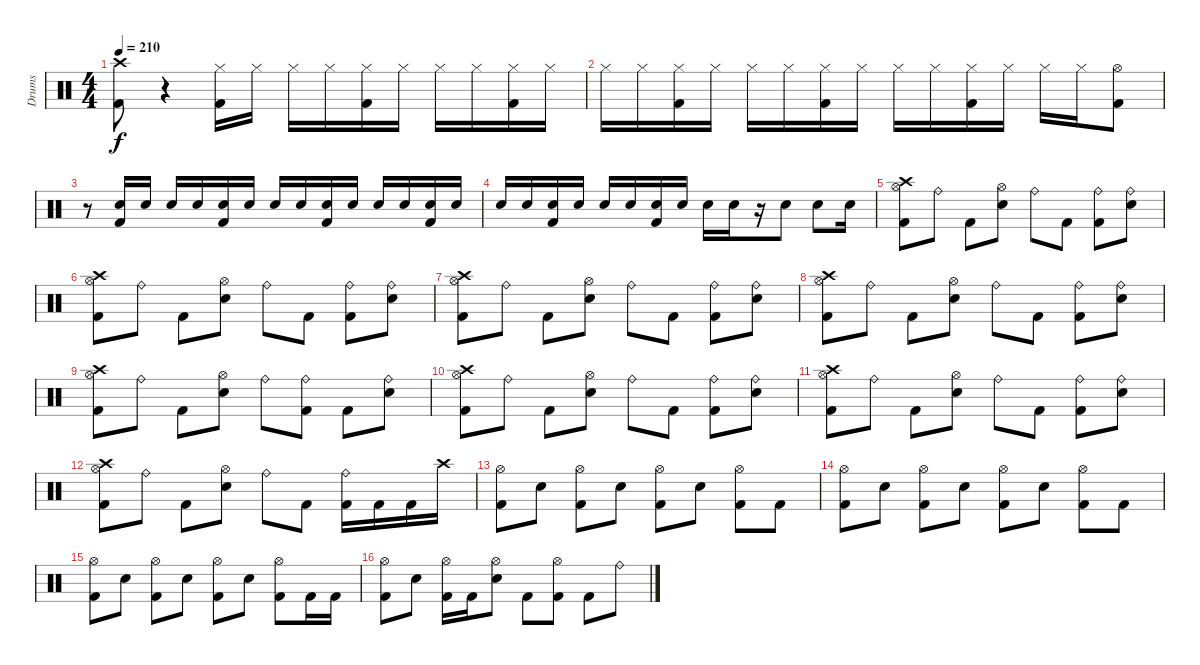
\track ("Drums" "Drums") {instrument percussion}
\staff {score}
\articulation defaults
\ts (4 4)
\tempo 210
\clef neutral
\ks c
("Crash high (hit)" "Kick (hit) 2").8{dy f} r.4 ("Hi-Hat (closed)" "Kick (hit) 2").16 "Hi-Hat (closed)".16 "Hi-Hat (closed)".16 "Hi-Hat (closed)".16 ("Hi-Hat (closed)" "Kick (hit) 2").16 "Hi-Hat (closed)".16 "Hi-Hat (closed)".16 "Hi-Hat (closed)".16 ("Hi-Hat (closed)" "Kick (hit) 2").16 "Hi-Hat (closed)".16 |
"Hi-Hat (closed)".16 "Hi-Hat (closed)".16 ("Hi-Hat (closed)" "Kick (hit) 2").16 "Hi-Hat (closed)".16 "Hi-Hat (closed)".16 "Hi-Hat (closed)".16 ("Hi-Hat (closed)" "Kick (hit) 2").16 "Hi-Hat (closed)".16 "Hi-Hat (closed)".16 "Hi-Hat (closed)".16 ("Hi-Hat (closed)" "Kick (hit) 2").16 "Hi-Hat (closed)".16 "Hi-Hat (closed)".16 "Hi-Hat (closed)".16 ("Hi-Hat (open)" "Kick (hit) 2").8 |
r.8 ("Electric Snare (hit)" "Kick (hit) 2").16{volume 16} "Electric Snare (hit)".16 "Electric Snare (hit)".16 "Electric Snare (hit)".16 ("Electric Snare (hit)" "Kick (hit) 2").16 "Electric Snare (hit)".16 "Electric Snare (hit)".16 "Electric Snare (hit)".16 ("Electric Snare (hit)" "Kick (hit) 2").16 "Electric Snare (hit)".16 "Electric Snare (hit)".16 "Electric Snare (hit)".16 ("Electric Snare (hit)" "Kick (hit) 2").16 "Electric Snare (hit)".16 |
"Electric Snare (hit)".16 "Electric Snare (hit)".16 ("Electric Snare (hit)" "Kick (hit) 2").16 "Electric Snare (hit)".16 "Electric Snare (hit)".16 "Electric Snare (hit)".16 ("Electric Snare (hit)" "Kick (hit) 2").16 "Electric Snare (hit)".16 "Electric Snare (hit)".16 "Electric Snare (hit)".16 r.16 "Electric Snare (hit)".8 "Electric Snare (hit)".8 "Electric Snare (hit)".16 |
("Crash high (hit)" "Hi-Hat (open)" "Kick (hit) 2").8 "Ride (bell)".8 "Kick (hit) 2".8 ("Hi-Hat (open)" "Electric Snare (hit)").8 "Ride (bell)".8 "Kick (hit) 2".8 ("Ride (bell)" "Kick (hit) 2").8 ("Ride (bell)" "Electric Snare (hit)").8 |
("Crash high (hit)" "Hi-Hat (open)" "Kick (hit) 2").8 "Ride (bell)".8 "Kick (hit) 2".8 ("Hi-Hat (open)" "Electric Snare (hit)").8 "Ride (bell)".8 "Kick (hit) 2".8 ("Ride (bell)" "Kick (hit) 2").8 ("Ride (bell)" "Electric Snare (hit)").8 |
("Crash high (hit)" "Hi-Hat (open)" "Kick (hit) 2").8 "Ride (bell)".8 "Kick (hit) 2".8 ("Hi-Hat (open)" "Electric Snare (hit)").8 "Ride (bell)".8 "Kick (hit) 2".8 ("Ride (bell)" "Kick (hit) 2").8 ("Ride (bell)" "Electric Snare (hit)").8 |
("Crash high (hit)" "Hi-Hat (open)" "Kick (hit) 2").8 "Ride (bell)".8 "Kick (hit) 2".8 ("Hi-Hat (open)" "Electric Snare (hit)").8 "Ride (bell)".8 "Kick (hit) 2".8 ("Ride (bell)" "Kick (hit) 2").8 ("Ride (bell)" "Electric Snare (hit)").8 |
("Crash high (hit)" "Hi-Hat (open)" "Kick (hit) 2").8 "Ride (bell)".8 "Kick (hit) 2".8 ("Hi-Hat (open)" "Electric Snare (hit)").8 "Ride (bell)".8 ("Ride (bell)" "Kick (hit) 2").8 "Kick (hit) 2".8 ("Ride (bell)" "Electric Snare (hit)").8 |
("Crash high (hit)" "Hi-Hat (open)" "Kick (hit) 2").8 "Ride (bell)".8 "Kick (hit) 2".8 ("Hi-Hat (open)" "Electric Snare (hit)").8 "Ride (bell)".8 "Kick (hit) 2".8 ("Ride (bell)" "Kick (hit) 2").8 ("Ride (bell)" "Electric Snare (hit)").8 |
("Crash high (hit)" "Hi-Hat (open)" "Kick (hit) 2").8 "Ride (bell)".8 "Kick (hit) 2".8 ("Hi-Hat (open)" "Electric Snare (hit)").8 "Ride (bell)".8 "Kick (hit) 2".8 ("Ride (bell)" "Kick (hit) 2").8 ("Ride (bell)" "Electric Snare (hit)").8 |
("Crash high (hit)" "Hi-Hat (open)" "Kick (hit) 2").8 "Ride (bell)".8 "Kick (hit) 2".8 ("Hi-Hat (open)" "Electric Snare (hit)").8 "Ride (bell)".8 "Kick (hit) 2".8 ("Ride (bell)" "Kick (hit) 2").16 "Kick (hit) 2".16 "Kick (hit) 2".16 "Crash high (hit)".16 |
("Hi-Hat (open)" "Kick (hit) 2").8 "Electric Snare (hit)".8 ("Hi-Hat (open)" "Kick (hit) 2").8 "Electric Snare (hit)".8 ("Hi-Hat (open)" "Kick (hit) 2").8 "Electric Snare (hit)".8 ("Hi-Hat (open)" "Kick (hit) 2").8 "Kick (hit) 2".8 |
("Hi-Hat (open)" "Kick (hit) 2").8 "Electric Snare (hit)".8 ("Hi-Hat (open)" "Kick (hit) 2").8 "Electric Snare (hit)".8 ("Hi-Hat (open)" "Kick (hit) 2").8 "Electric Snare (hit)".8 ("Hi-Hat (open)" "Kick (hit) 2").8 "Kick (hit) 2".8 |
("Hi-Hat (open)" "Kick (hit) 2").8 "Electric Snare (hit)".8 ("Hi-Hat (open)" "Kick (hit) 2").8 "Electric Snare (hit)".8 ("Hi-Hat (open)" "Kick (hit) 2").8 "Electric Snare (hit)".8 ("Hi-Hat (open)" "Kick (hit) 2").8 "Kick (hit) 2".16 "Kick (hit) 2".16 |
("Hi-Hat (open)" "Kick (hit) 2").8 "Electric Snare (hit)".8 ("Hi-Hat (open)" "Kick (hit) 2").16 "Kick (hit) 2".16 ("Hi-Hat (open)" "Electric Snare (hit)").8 "Kick (hit) 2".8 ("Hi-Hat (open)" "Kick (hit) 2").8 "Kick (hit) 2".8 "Ride (bell)".8
